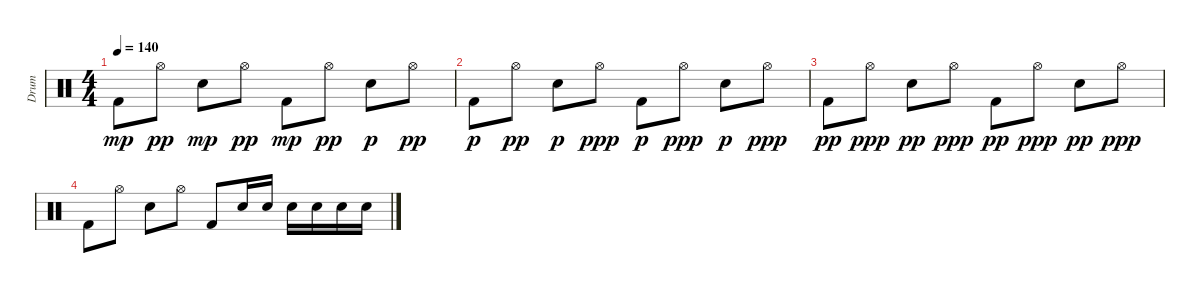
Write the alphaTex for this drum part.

\track ("Drum" "Drum") {instrument percussion}
\staff {score}
\articulation defaults
\ts (4 4)
\tempo 140
\clef neutral
\ks c "Kick (hit) 2".8{dy mp} "Hi-Hat (open)".8{dy pp} "Electric Snare (hit)".8{dy mp} "Hi-Hat (open)".8{dy pp} "Kick (hit) 2".8{dy mp} "Hi-Hat (open)".8{dy pp} "Electric Snare (hit)".8{dy p} "Hi-Hat (open)".8{dy pp}
|
"Kick (hit) 2".8{dy p} "Hi-Hat (open)".8{dy pp} "Electric Snare (hit)".8{dy p} "Hi-Hat (open)".8{dy ppp} "Kick (hit) 2".8{dy p} "Hi-Hat (open)".8{dy ppp} "Electric Snare (hit)".8{dy p} "Hi-Hat (open)".8{dy ppp} |
"Kick (hit) 2".8{dy pp} "Hi-Hat (open)".8{dy ppp} "Electric Snare (hit)".8{dy pp} "Hi-Hat (open)".8{dy ppp} "Kick (hit) 2".8{dy pp} "Hi-Hat (open)".8{dy ppp} "Electric Snare (hit)".8{dy pp} "Hi-Hat (open)".8{dy ppp} |
"Kick (hit) 2".8 "Hi-Hat (open)".8 "Electric Snare (hit)".8 "Hi-Hat (open)".8 "Kick (hit) 2".8 "Electric Snare (hit)".16 "Electric Snare (hit)".16 "Electric Snare (hit)".16 "Electric Snare (hit)".16 "Electric Snare (hit)".16 "Electric Snare (hit)".16
